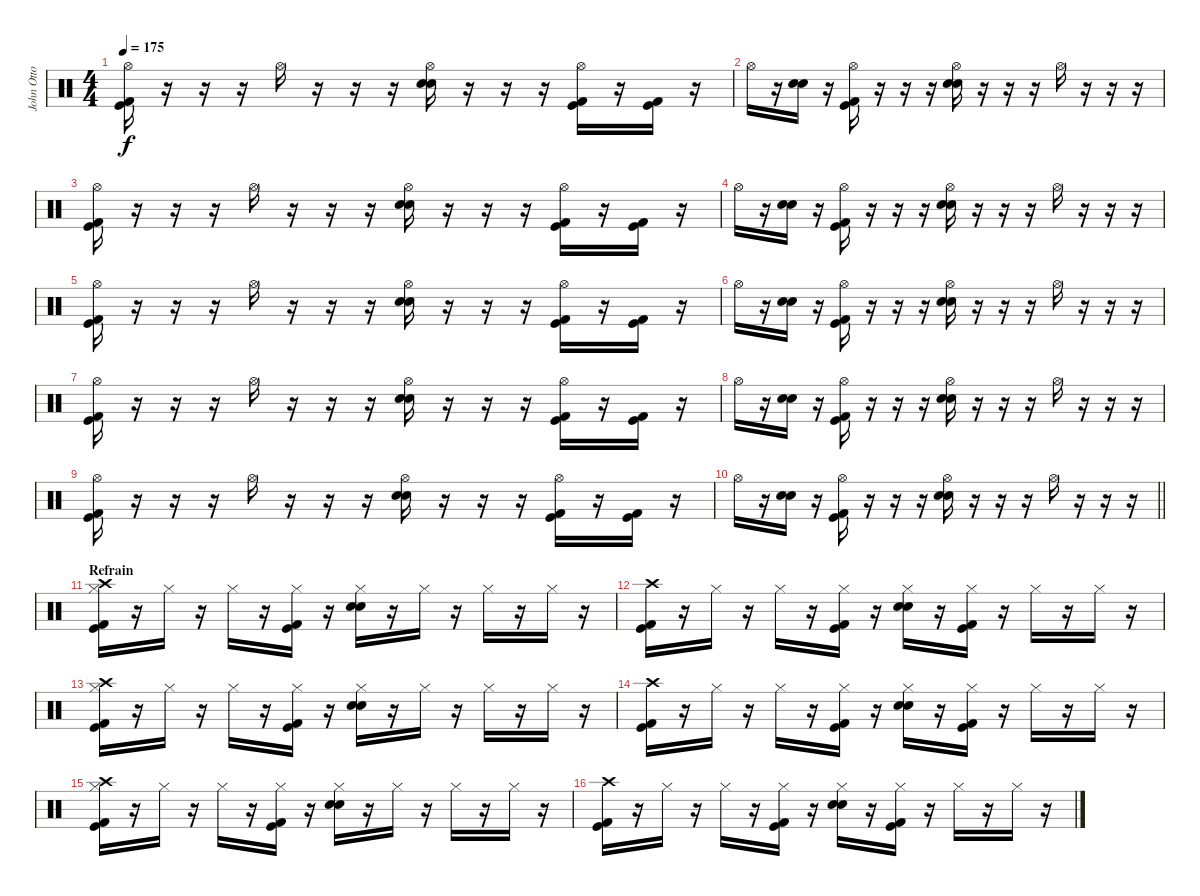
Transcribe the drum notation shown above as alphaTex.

\track ("John Otto" "John Otto") {instrument percussion}
\staff {score}
\articulation defaults
\ts (4 4)
\tempo 175
\clef neutral
\ks c
("Hi-Hat (open)" "Kick (hit) 2" "Kick (hit)").16{dy f} r.16 r.16 r.16 "Hi-Hat (open)".16 r.16 r.16 r.16 ("Hi-Hat (open)" "Electric Snare (hit)" "Snare (hit) 2").16 r.16 r.16 r.16 ("Hi-Hat (open)" "Kick (hit) 2" "Kick (hit)").16 r.16 ("Kick (hit) 2" "Kick (hit)").16 r.16 |
"Hi-Hat (open)".16 r.16 ("Electric Snare (hit)" "Snare (hit) 2").16 r.16 ("Hi-Hat (open)" "Kick (hit) 2" "Kick (hit)").16 r.16 r.16 r.16 ("Hi-Hat (open)" "Electric Snare (hit)" "Snare (hit) 2").16 r.16 r.16 r.16 "Hi-Hat (open)".16 r.16 r.16 r.16 |
("Hi-Hat (open)" "Kick (hit) 2" "Kick (hit)").16 r.16 r.16 r.16 "Hi-Hat (open)".16 r.16 r.16 r.16 ("Hi-Hat (open)" "Electric Snare (hit)" "Snare (hit) 2").16 r.16 r.16 r.16 ("Hi-Hat (open)" "Kick (hit) 2" "Kick (hit)").16 r.16 ("Kick (hit) 2" "Kick (hit)").16 r.16 |
"Hi-Hat (open)".16 r.16 ("Electric Snare (hit)" "Snare (hit) 2").16 r.16 ("Hi-Hat (open)" "Kick (hit) 2" "Kick (hit)").16 r.16 r.16 r.16 ("Hi-Hat (open)" "Electric Snare (hit)" "Snare (hit) 2").16 r.16 r.16 r.16 "Hi-Hat (open)".16 r.16 r.16 r.16 |
("Hi-Hat (open)" "Kick (hit) 2" "Kick (hit)").16 r.16 r.16 r.16 "Hi-Hat (open)".16 r.16 r.16 r.16 ("Hi-Hat (open)" "Electric Snare (hit)" "Snare (hit) 2").16 r.16 r.16 r.16 ("Hi-Hat (open)" "Kick (hit) 2" "Kick (hit)").16 r.16 ("Kick (hit) 2" "Kick (hit)").16 r.16 |
"Hi-Hat (open)".16 r.16 ("Electric Snare (hit)" "Snare (hit) 2").16 r.16 ("Hi-Hat (open)" "Kick (hit) 2" "Kick (hit)").16 r.16 r.16 r.16 ("Hi-Hat (open)" "Electric Snare (hit)" "Snare (hit) 2").16 r.16 r.16 r.16 "Hi-Hat (open)".16 r.16 r.16 r.16 |
("Hi-Hat (open)" "Kick (hit) 2" "Kick (hit)").16 r.16 r.16 r.16 "Hi-Hat (open)".16 r.16 r.16 r.16 ("Hi-Hat (open)" "Electric Snare (hit)" "Snare (hit) 2").16 r.16 r.16 r.16 ("Hi-Hat (open)" "Kick (hit) 2" "Kick (hit)").16 r.16 ("Kick (hit) 2" "Kick (hit)").16 r.16 |
"Hi-Hat (open)".16 r.16 ("Electric Snare (hit)" "Snare (hit) 2").16 r.16 ("Hi-Hat (open)" "Kick (hit) 2" "Kick (hit)").16 r.16 r.16 r.16 ("Hi-Hat (open)" "Electric Snare (hit)" "Snare (hit) 2").16 r.16 r.16 r.16 "Hi-Hat (open)".16 r.16 r.16 r.16 |
("Hi-Hat (open)" "Kick (hit) 2" "Kick (hit)").16 r.16 r.16 r.16 "Hi-Hat (open)".16 r.16 r.16 r.16 ("Hi-Hat (open)" "Electric Snare (hit)" "Snare (hit) 2").16 r.16 r.16 r.16 ("Hi-Hat (open)" "Kick (hit) 2" "Kick (hit)").16 r.16 ("Kick (hit) 2" "Kick (hit)").16 r.16 |
\barLineRight lightlight "Hi-Hat (open)".16
r.16 ("Electric Snare (hit)" "Snare (hit) 2").16 r.16 ("Hi-Hat (open)" "Kick (hit) 2" "Kick (hit)").16 r.16 r.16 r.16 ("Hi-Hat (open)" "Electric Snare (hit)" "Snare (hit) 2").16 r.16 r.16 r.16 "Hi-Hat (open)".16 r.16 r.16 r.16 |
\section ("" "Refrain")
("Crash high (hit)" "Hi-Hat (closed)" "Kick (hit) 2" "Kick (hit)").16 r.16 "Hi-Hat (closed)".16 r.16 "Hi-Hat (closed)".16 r.16 ("Hi-Hat (closed)" "Kick (hit) 2" "Kick (hit)").16 r.16 ("Hi-Hat (closed)" "Electric Snare (hit)" "Snare (hit) 2").16 r.16 "Hi-Hat (closed)".16 r.16 "Hi-Hat (closed)".16 r.16 "Hi-Hat (closed)".16 r.16 |
("Crash high (hit)" "Kick (hit) 2" "Kick (hit)").16 r.16 "Hi-Hat (closed)".16 r.16 "Hi-Hat (closed)".16 r.16 ("Hi-Hat (closed)" "Kick (hit) 2" "Kick (hit)").16 r.16 ("Hi-Hat (closed)" "Electric Snare (hit)" "Snare (hit) 2").16 r.16 ("Hi-Hat (closed)" "Kick (hit) 2" "Kick (hit)").16 r.16 "Hi-Hat (closed)".16 r.16 "Hi-Hat (closed)".16 r.16 |
("Crash high (hit)" "Hi-Hat (closed)" "Kick (hit) 2" "Kick (hit)").16 r.16 "Hi-Hat (closed)".16 r.16 "Hi-Hat (closed)".16 r.16 ("Hi-Hat (closed)" "Kick (hit) 2" "Kick (hit)").16 r.16 ("Hi-Hat (closed)" "Electric Snare (hit)" "Snare (hit) 2").16 r.16 "Hi-Hat (closed)".16 r.16 "Hi-Hat (closed)".16 r.16 "Hi-Hat (closed)".16 r.16 |
("Crash high (hit)" "Kick (hit) 2" "Kick (hit)").16 r.16 "Hi-Hat (closed)".16 r.16 "Hi-Hat (closed)".16 r.16 ("Hi-Hat (closed)" "Kick (hit) 2" "Kick (hit)").16 r.16 ("Hi-Hat (closed)" "Electric Snare (hit)" "Snare (hit) 2").16 r.16 ("Hi-Hat (closed)" "Kick (hit) 2" "Kick (hit)").16 r.16 "Hi-Hat (closed)".16 r.16 "Hi-Hat (closed)".16 r.16 |
("Crash high (hit)" "Hi-Hat (closed)" "Kick (hit) 2" "Kick (hit)").16 r.16 "Hi-Hat (closed)".16 r.16 "Hi-Hat (closed)".16 r.16 ("Hi-Hat (closed)" "Kick (hit) 2" "Kick (hit)").16 r.16 ("Hi-Hat (closed)" "Electric Snare (hit)" "Snare (hit) 2").16 r.16 "Hi-Hat (closed)".16 r.16 "Hi-Hat (closed)".16 r.16 "Hi-Hat (closed)".16 r.16 |
("Crash high (hit)" "Kick (hit) 2" "Kick (hit)").16 r.16 "Hi-Hat (closed)".16 r.16 "Hi-Hat (closed)".16 r.16 ("Hi-Hat (closed)" "Kick (hit) 2" "Kick (hit)").16 r.16 ("Hi-Hat (closed)" "Electric Snare (hit)" "Snare (hit) 2").16 r.16 ("Hi-Hat (closed)" "Kick (hit) 2" "Kick (hit)").16 r.16 "Hi-Hat (closed)".16 r.16 "Hi-Hat (closed)".16 r.16
